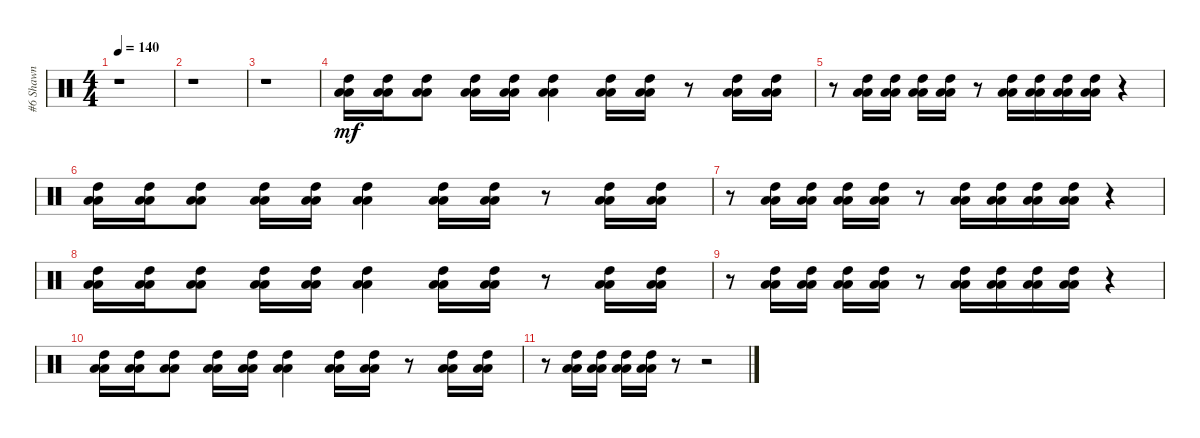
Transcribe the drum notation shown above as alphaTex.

\track ("#6 Shawn" "#6 Shawn") {solo instrument percussion}
\staff {score}
\articulation defaults
\ts (4 4)
\tempo 140
\clef neutral
\ks c
r.1{dy mf} |
r.1 |
r.1 |
("High Tom (hit)" "Low Tom (hit)" "Low Floor Tom (hit)").16 ("High Tom (hit)" "Low Tom (hit)" "Low Floor Tom (hit)").16 ("High Tom (hit)" "Low Tom (hit)" "Low Floor Tom (hit)").8 ("High Tom (hit)" "Low Tom (hit)" "Low Floor Tom (hit)").16 ("High Tom (hit)" "Low Tom (hit)" "Low Floor Tom (hit)").16 ("High Tom (hit)" "Low Tom (hit)" "Low Floor Tom (hit)").4 ("High Tom (hit)" "Low Tom (hit)" "Low Floor Tom (hit)").16 ("High Tom (hit)" "Low Tom (hit)" "Low Floor Tom (hit)").16 r.8 ("High Tom (hit)" "Low Tom (hit)" "Low Floor Tom (hit)").16 ("High Tom (hit)" "Low Tom (hit)" "Low Floor Tom (hit)").16 |
r.8 ("High Tom (hit)" "Low Tom (hit)" "Low Floor Tom (hit)").16 ("High Tom (hit)" "Low Tom (hit)" "Low Floor Tom (hit)").16 ("High Tom (hit)" "Low Tom (hit)" "Low Floor Tom (hit)").16 ("High Tom (hit)" "Low Tom (hit)" "Low Floor Tom (hit)").16 r.8 ("High Tom (hit)" "Low Tom (hit)" "Low Floor Tom (hit)").16 ("High Tom (hit)" "Low Tom (hit)" "Low Floor Tom (hit)").16 ("High Tom (hit)" "Low Tom (hit)" "Low Floor Tom (hit)").16 ("High Tom (hit)" "Low Tom (hit)" "Low Floor Tom (hit)").16 r.4 |
("High Tom (hit)" "Low Tom (hit)" "Low Floor Tom (hit)").16 ("High Tom (hit)" "Low Tom (hit)" "Low Floor Tom (hit)").16 ("High Tom (hit)" "Low Tom (hit)" "Low Floor Tom (hit)").8 ("High Tom (hit)" "Low Tom (hit)" "Low Floor Tom (hit)").16 ("High Tom (hit)" "Low Tom (hit)" "Low Floor Tom (hit)").16 ("High Tom (hit)" "Low Tom (hit)" "Low Floor Tom (hit)").4 ("High Tom (hit)" "Low Tom (hit)" "Low Floor Tom (hit)").16 ("High Tom (hit)" "Low Tom (hit)" "Low Floor Tom (hit)").16 r.8 ("High Tom (hit)" "Low Tom (hit)" "Low Floor Tom (hit)").16 ("High Tom (hit)" "Low Tom (hit)" "Low Floor Tom (hit)").16 |
r.8 ("High Tom (hit)" "Low Tom (hit)" "Low Floor Tom (hit)").16 ("High Tom (hit)" "Low Tom (hit)" "Low Floor Tom (hit)").16 ("High Tom (hit)" "Low Tom (hit)" "Low Floor Tom (hit)").16 ("High Tom (hit)" "Low Tom (hit)" "Low Floor Tom (hit)").16 r.8 ("High Tom (hit)" "Low Tom (hit)" "Low Floor Tom (hit)").16 ("High Tom (hit)" "Low Tom (hit)" "Low Floor Tom (hit)").16 ("High Tom (hit)" "Low Tom (hit)" "Low Floor Tom (hit)").16 ("High Tom (hit)" "Low Tom (hit)" "Low Floor Tom (hit)").16 r.4 |
("High Tom (hit)" "Low Tom (hit)" "Low Floor Tom (hit)").16 ("High Tom (hit)" "Low Tom (hit)" "Low Floor Tom (hit)").16 ("High Tom (hit)" "Low Tom (hit)" "Low Floor Tom (hit)").8 ("High Tom (hit)" "Low Tom (hit)" "Low Floor Tom (hit)").16 ("High Tom (hit)" "Low Tom (hit)" "Low Floor Tom (hit)").16 ("High Tom (hit)" "Low Tom (hit)" "Low Floor Tom (hit)").4 ("High Tom (hit)" "Low Tom (hit)" "Low Floor Tom (hit)").16 ("High Tom (hit)" "Low Tom (hit)" "Low Floor Tom (hit)").16 r.8 ("High Tom (hit)" "Low Tom (hit)" "Low Floor Tom (hit)").16 ("High Tom (hit)" "Low Tom (hit)" "Low Floor Tom (hit)").16 |
r.8 ("High Tom (hit)" "Low Tom (hit)" "Low Floor Tom (hit)").16 ("High Tom (hit)" "Low Tom (hit)" "Low Floor Tom (hit)").16 ("High Tom (hit)" "Low Tom (hit)" "Low Floor Tom (hit)").16 ("High Tom (hit)" "Low Tom (hit)" "Low Floor Tom (hit)").16 r.8 ("High Tom (hit)" "Low Tom (hit)" "Low Floor Tom (hit)").16 ("High Tom (hit)" "Low Tom (hit)" "Low Floor Tom (hit)").16 ("High Tom (hit)" "Low Tom (hit)" "Low Floor Tom (hit)").16 ("High Tom (hit)" "Low Tom (hit)" "Low Floor Tom (hit)").16 r.4 |
("High Tom (hit)" "Low Tom (hit)" "Low Floor Tom (hit)").16 ("High Tom (hit)" "Low Tom (hit)" "Low Floor Tom (hit)").16 ("High Tom (hit)" "Low Tom (hit)" "Low Floor Tom (hit)").8 ("High Tom (hit)" "Low Tom (hit)" "Low Floor Tom (hit)").16 ("High Tom (hit)" "Low Tom (hit)" "Low Floor Tom (hit)").16 ("High Tom (hit)" "Low Tom (hit)" "Low Floor Tom (hit)").4 ("High Tom (hit)" "Low Tom (hit)" "Low Floor Tom (hit)").16 ("High Tom (hit)" "Low Tom (hit)" "Low Floor Tom (hit)").16 r.8 ("High Tom (hit)" "Low Tom (hit)" "Low Floor Tom (hit)").16 ("High Tom (hit)" "Low Tom (hit)" "Low Floor Tom (hit)").16 |
r.8 ("High Tom (hit)" "Low Tom (hit)" "Low Floor Tom (hit)").16 ("High Tom (hit)" "Low Tom (hit)" "Low Floor Tom (hit)").16 ("High Tom (hit)" "Low Tom (hit)" "Low Floor Tom (hit)").16 ("High Tom (hit)" "Low Tom (hit)" "Low Floor Tom (hit)").16 r.8 r.2
